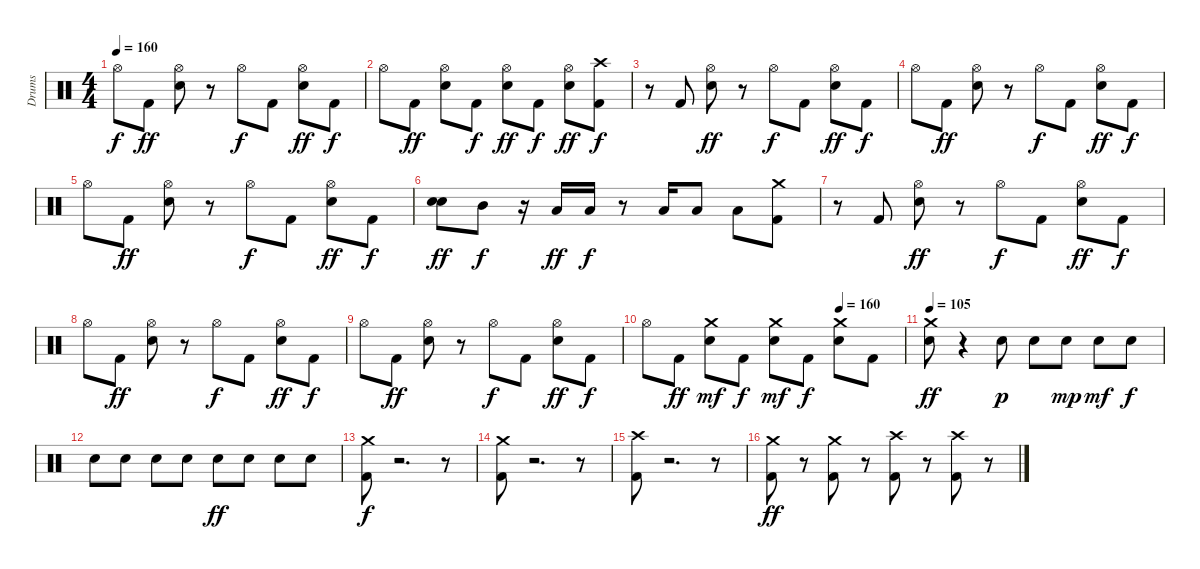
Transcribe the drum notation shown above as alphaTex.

\track ("Drums" "Drums") {instrument percussion}
\staff {score}
\articulation defaults
\ts (4 4)
\tempo 160
\clef neutral
\ks c "Hi-Hat (open)".8{dy f} "Kick (hit) 2".8{dy ff}
("Electric Snare (hit)" "Hi-Hat (open)").8 r.8 "Hi-Hat (open)".8{dy f} "Kick (hit) 2".8 ("Electric Snare (hit)" "Hi-Hat (open)").8{dy ff} "Kick (hit) 2".8{dy f} |
"Hi-Hat (open)".8 "Kick (hit) 2".8{dy ff} ("Electric Snare (hit)" "Hi-Hat (open)").8 "Kick (hit) 2".8{dy f} ("Electric Snare (hit)" "Hi-Hat (open)").8{dy ff} "Kick (hit) 2".8{dy f} ("Electric Snare (hit)" "Hi-Hat (open)").8{dy ff} ("Kick (hit) 2" "Crash high (hit)").8{dy f} |
r.8 "Kick (hit) 2".8 ("Electric Snare (hit)" "Hi-Hat (open)").8{dy ff} r.8 "Hi-Hat (open)".8{dy f} "Kick (hit) 2".8 ("Electric Snare (hit)" "Hi-Hat (open)").8{dy ff} "Kick (hit) 2".8{dy f} |
"Hi-Hat (open)".8 "Kick (hit) 2".8{dy ff} ("Electric Snare (hit)" "Hi-Hat (open)").8 r.8 "Hi-Hat (open)".8{dy f} "Kick (hit) 2".8 ("Electric Snare (hit)" "Hi-Hat (open)").8{dy ff} "Kick (hit) 2".8{dy f} |
"Hi-Hat (open)".8 "Kick (hit) 2".8{dy ff} ("Electric Snare (hit)" "Hi-Hat (open)").8 r.8 "Hi-Hat (open)".8{dy f} "Kick (hit) 2".8 ("Electric Snare (hit)" "Hi-Hat (open)").8{dy ff} "Kick (hit) 2".8{dy f} |
("Electric Snare (hit)" "Electric Snare (hit)").8{dy ff} "Mid Tom (hit)".8{dy f} r.16 "Low Tom (hit)".16{dy ff} "Low Tom (hit)".16{dy f} r.8 "Low Floor Tom (hit)".16 "Low Floor Tom (hit)".8 "Low Floor Tom (hit)".8 ("Kick (hit) 2" "Crash medium (hit)").8 |
r.8 "Kick (hit) 2".8 ("Electric Snare (hit)" "Hi-Hat (open)").8{dy ff} r.8 "Hi-Hat (open)".8{dy f} "Kick (hit) 2".8 ("Electric Snare (hit)" "Hi-Hat (open)").8{dy ff} "Kick (hit) 2".8{dy f} |
"Hi-Hat (open)".8 "Kick (hit) 2".8{dy ff} ("Electric Snare (hit)" "Hi-Hat (open)").8 r.8 "Hi-Hat (open)".8{dy f} "Kick (hit) 2".8 ("Electric Snare (hit)" "Hi-Hat (open)").8{dy ff} "Kick (hit) 2".8{dy f} |
"Hi-Hat (open)".8 "Kick (hit) 2".8{dy ff} ("Electric Snare (hit)" "Hi-Hat (open)").8 r.8 "Hi-Hat (open)".8{dy f} "Kick (hit) 2".8 ("Electric Snare (hit)" "Hi-Hat (open)").8{dy ff} "Kick (hit) 2".8{dy f} |
\tempo (160 0.75)
"Hi-Hat (open)".8 "Kick (hit) 2".8{dy ff} ("Electric Snare (hit)" "Crash medium (hit)").8{dy mf} "Kick (hit) 2".8{dy f} ("Electric Snare (hit)" "Crash medium (hit)").8{dy mf} "Kick (hit) 2".8{dy f} ("Electric Snare (hit)" "Crash medium (hit)").8 "Kick (hit) 2".8 |
\tempo 105
("Electric Snare (hit)" "Crash medium (hit)").8{dy ff} r.4 "Electric Snare (hit)".8{dy p} "Electric Snare (hit)".8 "Electric Snare (hit)".8{dy mp} "Electric Snare (hit)".8{dy mf} "Electric Snare (hit)".8{dy f} |
"Electric Snare (hit)".8 "Electric Snare (hit)".8 "Electric Snare (hit)".8 "Electric Snare (hit)".8 "Electric Snare (hit)".8{dy ff} "Electric Snare (hit)".8 "Electric Snare (hit)".8 "Electric Snare (hit)".8 |
("Kick (hit) 2" "Crash medium (hit)").8{dy f} r.2{d} r.8 |
("Kick (hit) 2" "Crash medium (hit)").8 r.2{d} r.8 |
("Kick (hit) 2" "Crash high (hit)").8 r.2{d} r.8 |
("Kick (hit) 2" "Crash medium (hit)").8{dy ff} r.8 ("Kick (hit) 2" "Crash medium (hit)").8 r.8 ("Kick (hit) 2" "Crash high (hit)").8 r.8 ("Kick (hit) 2" "Crash high (hit)").8 r.8
